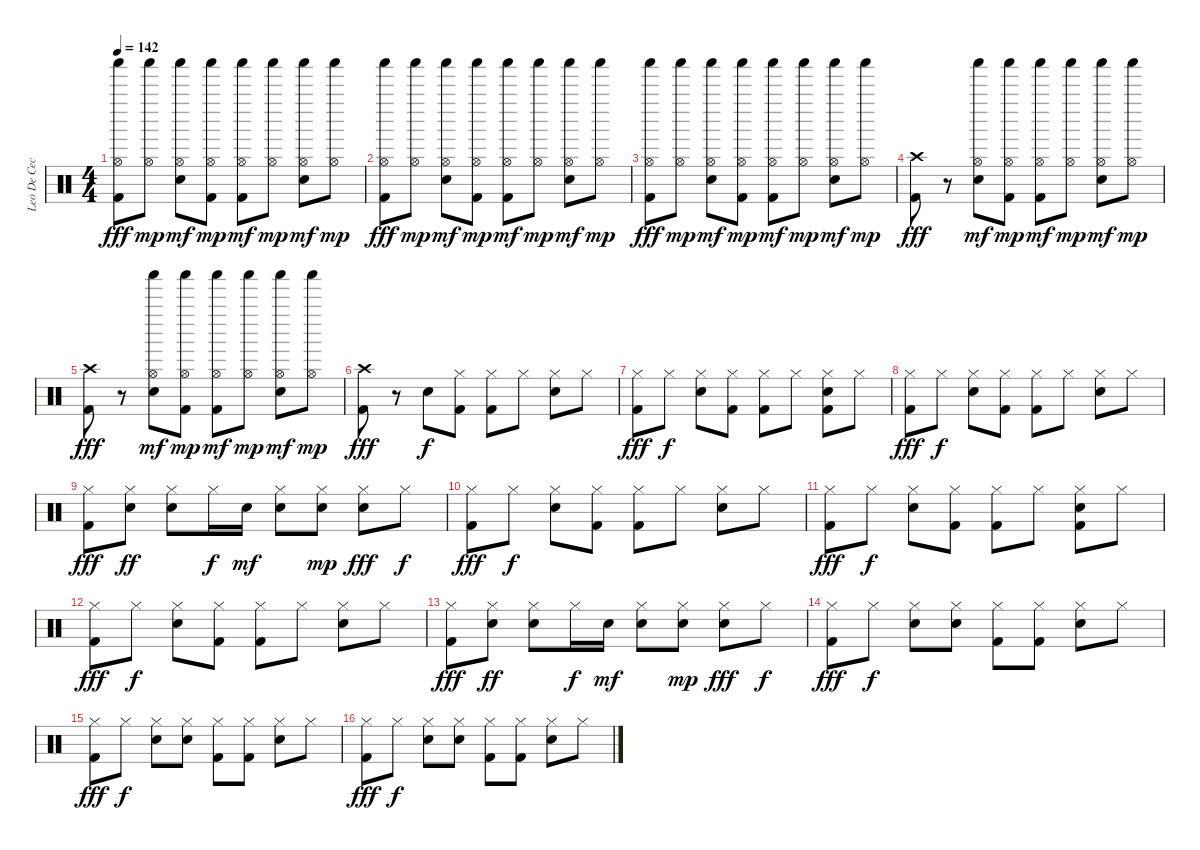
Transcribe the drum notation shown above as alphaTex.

\track ("Leo De Cecco" "Leo De Cec") {instrument percussion}
\staff {score}
\articulation defaults
\ts (4 4)
\tempo 142
\clef neutral
\ks c
("Shaker (hit)" "Hi-Hat (open)" "Kick (hit) 2").8{dy fff} ("Shaker (hit)" "Hi-Hat (open)").8{dy mp} ("Shaker (hit)" "Hi-Hat (open)" "Electric Snare (hit)").8{dy mf} ("Shaker (hit)" "Hi-Hat (open)" "Kick (hit) 2").8{dy mp} ("Shaker (hit)" "Hi-Hat (open)" "Kick (hit) 2").8{dy mf} ("Shaker (hit)" "Hi-Hat (open)").8{dy mp} ("Shaker (hit)" "Hi-Hat (open)" "Electric Snare (hit)").8{dy mf} ("Shaker (hit)" "Hi-Hat (open)").8{dy mp} |
("Shaker (hit)" "Hi-Hat (open)" "Kick (hit) 2").8{dy fff} ("Shaker (hit)" "Hi-Hat (open)").8{dy mp} ("Shaker (hit)" "Hi-Hat (open)" "Electric Snare (hit)").8{dy mf} ("Shaker (hit)" "Hi-Hat (open)" "Kick (hit) 2").8{dy mp} ("Shaker (hit)" "Hi-Hat (open)" "Kick (hit) 2").8{dy mf} ("Shaker (hit)" "Hi-Hat (open)").8{dy mp} ("Shaker (hit)" "Hi-Hat (open)" "Electric Snare (hit)").8{dy mf} ("Shaker (hit)" "Hi-Hat (open)").8{dy mp} |
("Shaker (hit)" "Hi-Hat (open)" "Kick (hit) 2").8{dy fff} ("Shaker (hit)" "Hi-Hat (open)").8{dy mp} ("Shaker (hit)" "Hi-Hat (open)" "Electric Snare (hit)").8{dy mf} ("Shaker (hit)" "Hi-Hat (open)" "Kick (hit) 2").8{dy mp} ("Shaker (hit)" "Hi-Hat (open)" "Kick (hit) 2").8{dy mf} ("Shaker (hit)" "Hi-Hat (open)").8{dy mp} ("Shaker (hit)" "Hi-Hat (open)" "Electric Snare (hit)").8{dy mf} ("Shaker (hit)" "Hi-Hat (open)").8{dy mp} |
("Crash high (hit)" "Kick (hit) 2").8{dy fff} r.8 ("Shaker (hit)" "Hi-Hat (open)" "Electric Snare (hit)").8{dy mf} ("Shaker (hit)" "Hi-Hat (open)" "Kick (hit) 2").8{dy mp} ("Shaker (hit)" "Hi-Hat (open)" "Kick (hit) 2").8{dy mf} ("Shaker (hit)" "Hi-Hat (open)").8{dy mp} ("Shaker (hit)" "Hi-Hat (open)" "Electric Snare (hit)").8{dy mf} ("Shaker (hit)" "Hi-Hat (open)").8{dy mp} |
("Crash high (hit)" "Kick (hit) 2").8{dy fff} r.8 ("Shaker (hit)" "Hi-Hat (open)" "Electric Snare (hit)").8{dy mf} ("Shaker (hit)" "Hi-Hat (open)" "Kick (hit) 2").8{dy mp} ("Shaker (hit)" "Hi-Hat (open)" "Kick (hit) 2").8{dy mf} ("Shaker (hit)" "Hi-Hat (open)").8{dy mp} ("Shaker (hit)" "Hi-Hat (open)" "Electric Snare (hit)").8{dy mf} ("Shaker (hit)" "Hi-Hat (open)").8{dy mp} |
("Crash high (hit)" "Kick (hit) 2").8{dy fff} r.8 "Electric Snare (hit)".8{dy f} ("Hi-Hat (closed)" "Kick (hit) 2").8 ("Hi-Hat (closed)" "Kick (hit) 2").8 "Hi-Hat (closed)".8 ("Hi-Hat (closed)" "Electric Snare (hit)").8 "Hi-Hat (closed)".8 |
("Hi-Hat (closed)" "Kick (hit) 2").8{dy fff} "Hi-Hat (closed)".8{dy f} ("Hi-Hat (closed)" "Electric Snare (hit)").8 ("Hi-Hat (closed)" "Kick (hit) 2").8 ("Hi-Hat (closed)" "Kick (hit) 2").8 "Hi-Hat (closed)".8 ("Hi-Hat (closed)" "Electric Snare (hit)" "Kick (hit) 2").8 "Hi-Hat (closed)".8 |
("Hi-Hat (closed)" "Kick (hit) 2").8{dy fff} "Hi-Hat (closed)".8{dy f} ("Hi-Hat (closed)" "Electric Snare (hit)").8 ("Hi-Hat (closed)" "Kick (hit) 2").8 ("Hi-Hat (closed)" "Kick (hit) 2").8 "Hi-Hat (closed)".8 ("Hi-Hat (closed)" "Electric Snare (hit)").8 "Hi-Hat (closed)".8 |
("Hi-Hat (closed)" "Kick (hit) 2").8{dy fff} ("Hi-Hat (closed)" "Electric Snare (hit)").8{dy ff} ("Hi-Hat (closed)" "Electric Snare (hit)").8 "Hi-Hat (closed)".16{dy f} "Electric Snare (hit)".16{dy mf} ("Hi-Hat (closed)" "Electric Snare (hit)").8 ("Hi-Hat (closed)" "Electric Snare (hit)").8{dy mp} ("Hi-Hat (closed)" "Electric Snare (hit)").8{dy fff} "Hi-Hat (closed)".8{dy f} |
("Hi-Hat (closed)" "Kick (hit) 2").8{dy fff} "Hi-Hat (closed)".8{dy f} ("Hi-Hat (closed)" "Electric Snare (hit)").8 ("Hi-Hat (closed)" "Kick (hit) 2").8 ("Hi-Hat (closed)" "Kick (hit) 2").8 "Hi-Hat (closed)".8 ("Hi-Hat (closed)" "Electric Snare (hit)").8 "Hi-Hat (closed)".8 |
("Hi-Hat (closed)" "Kick (hit) 2").8{dy fff} "Hi-Hat (closed)".8{dy f} ("Hi-Hat (closed)" "Electric Snare (hit)").8 ("Hi-Hat (closed)" "Kick (hit) 2").8 ("Hi-Hat (closed)" "Kick (hit) 2").8 "Hi-Hat (closed)".8 ("Hi-Hat (closed)" "Electric Snare (hit)" "Kick (hit) 2").8 "Hi-Hat (closed)".8 |
("Hi-Hat (closed)" "Kick (hit) 2").8{dy fff} "Hi-Hat (closed)".8{dy f} ("Hi-Hat (closed)" "Electric Snare (hit)").8 ("Hi-Hat (closed)" "Kick (hit) 2").8 ("Hi-Hat (closed)" "Kick (hit) 2").8 "Hi-Hat (closed)".8 ("Hi-Hat (closed)" "Electric Snare (hit)").8 "Hi-Hat (closed)".8 |
("Hi-Hat (closed)" "Kick (hit) 2").8{dy fff} ("Hi-Hat (closed)" "Electric Snare (hit)").8{dy ff} ("Hi-Hat (closed)" "Electric Snare (hit)").8 "Hi-Hat (closed)".16{dy f} "Electric Snare (hit)".16{dy mf} ("Hi-Hat (closed)" "Electric Snare (hit)").8 ("Hi-Hat (closed)" "Electric Snare (hit)").8{dy mp} ("Hi-Hat (closed)" "Electric Snare (hit)").8{dy fff} "Hi-Hat (closed)".8{dy f} |
("Hi-Hat (closed)" "Kick (hit) 2").8{dy fff} "Hi-Hat (closed)".8{dy f} ("Hi-Hat (closed)" "Electric Snare (hit)").8 ("Hi-Hat (closed)" "Electric Snare (hit)").8 ("Hi-Hat (closed)" "Kick (hit) 2").8 ("Hi-Hat (closed)" "Kick (hit) 2").8 ("Hi-Hat (closed)" "Electric Snare (hit)").8 "Hi-Hat (closed)".8 |
("Hi-Hat (closed)" "Kick (hit) 2").8{dy fff} "Hi-Hat (closed)".8{dy f} ("Hi-Hat (closed)" "Electric Snare (hit)").8 ("Hi-Hat (closed)" "Electric Snare (hit)").8 ("Hi-Hat (closed)" "Kick (hit) 2").8 ("Hi-Hat (closed)" "Kick (hit) 2").8 ("Hi-Hat (closed)" "Electric Snare (hit)").8 "Hi-Hat (closed)".8 |
("Hi-Hat (closed)" "Kick (hit) 2").8{dy fff} "Hi-Hat (closed)".8{dy f} ("Hi-Hat (closed)" "Electric Snare (hit)").8 ("Hi-Hat (closed)" "Electric Snare (hit)").8 ("Hi-Hat (closed)" "Kick (hit) 2").8 ("Hi-Hat (closed)" "Kick (hit) 2").8 ("Hi-Hat (closed)" "Electric Snare (hit)").8 "Hi-Hat (closed)".8
